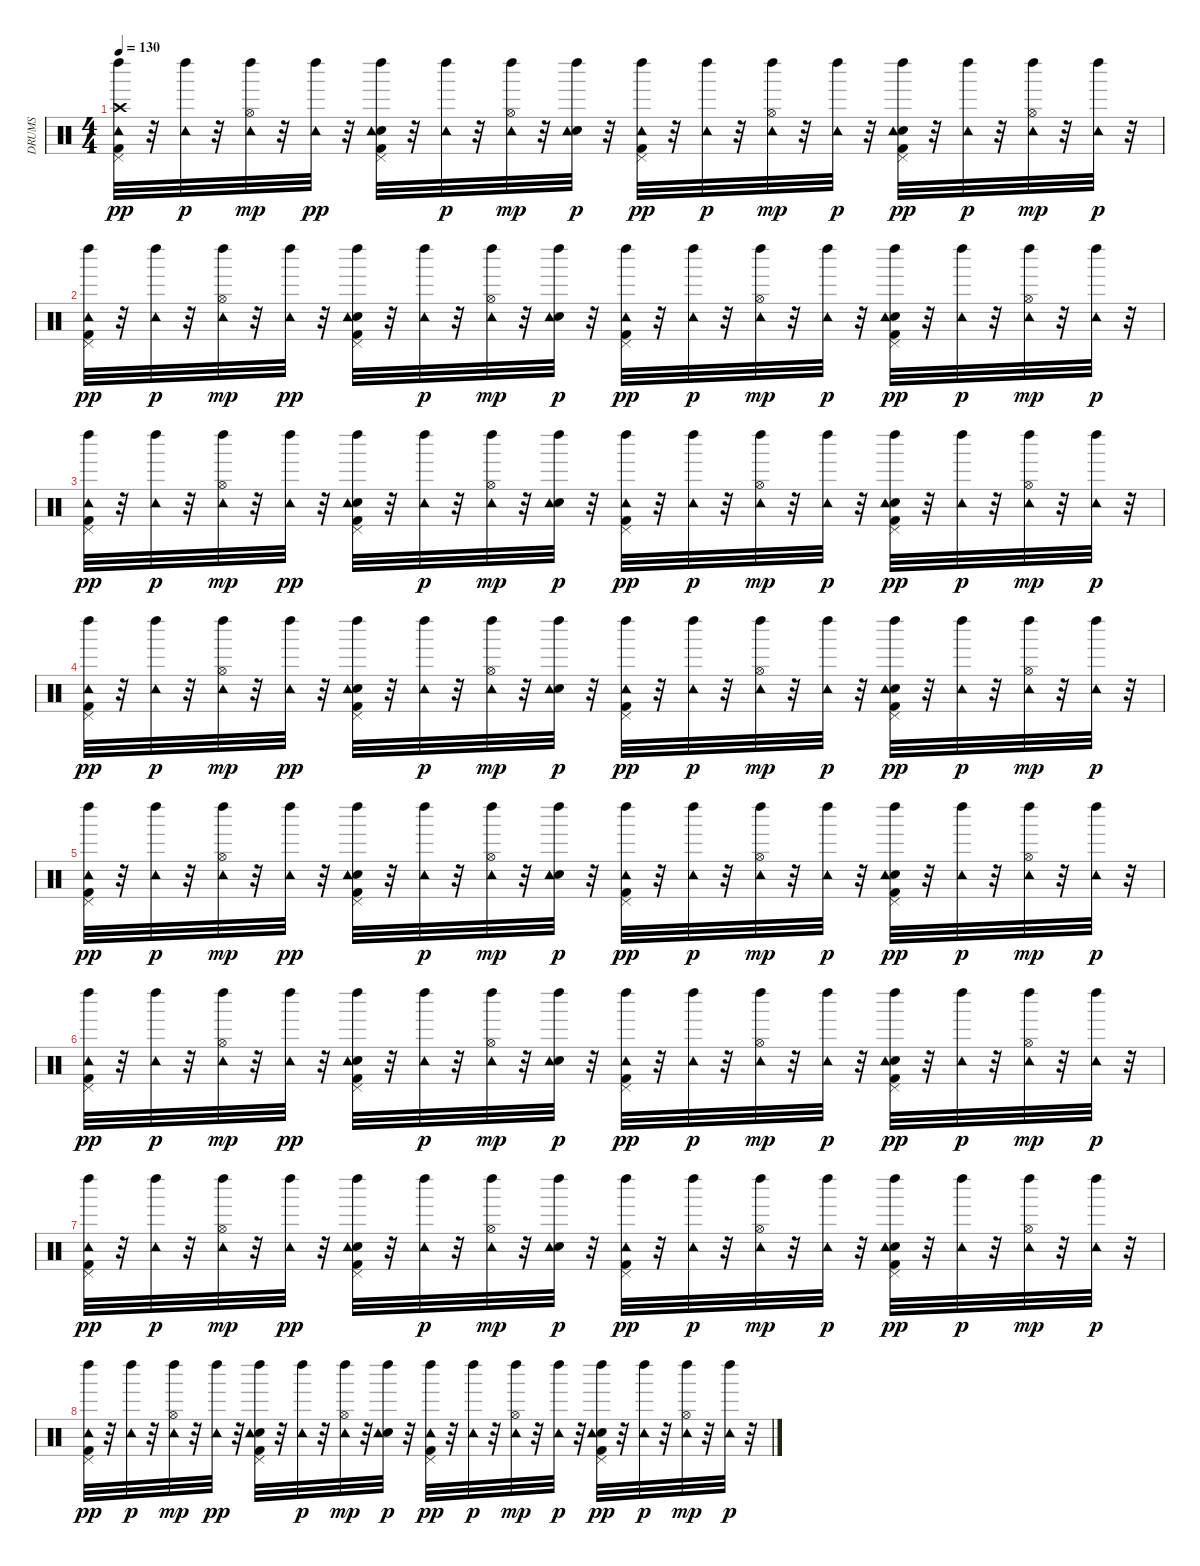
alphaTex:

\track ("DRUMS" "DRUMS") {instrument percussion}
\staff {score}
\articulation defaults
\ts (4 4)
\tempo 130
\clef neutral
\ks c
("Kick (hit) 2" "Pedal Hi-Hat (hit)" "Left Maraca (hit)" "Crash high (hit)" "Tambourine (hit)").32{dy pp} r.32 ("Left Maraca (hit)" "Tambourine (hit)").32{dy p} r.32 ("Hi-Hat (open)" "Left Maraca (hit)" "Tambourine (hit)").32{dy mp} r.32 ("Left Maraca (hit)" "Tambourine (hit)").32{dy pp} r.32 ("Kick (hit) 2" "Electric Snare (hit)" "Pedal Hi-Hat (hit)" "Left Maraca (hit)" "Tambourine (hit)").32 r.32 ("Left Maraca (hit)" "Tambourine (hit)").32{dy p} r.32 ("Hi-Hat (open)" "Left Maraca (hit)" "Tambourine (hit)").32{dy mp} r.32 ("Electric Snare (hit)" "Left Maraca (hit)" "Tambourine (hit)").32{dy p} r.32 ("Kick (hit) 2" "Pedal Hi-Hat (hit)" "Left Maraca (hit)" "Tambourine (hit)").32{dy pp} r.32 ("Left Maraca (hit)" "Tambourine (hit)").32{dy p} r.32 ("Hi-Hat (open)" "Left Maraca (hit)" "Tambourine (hit)").32{dy mp} r.32 ("Left Maraca (hit)" "Tambourine (hit)").32{dy p} r.32 ("Kick (hit) 2" "Electric Snare (hit)" "Pedal Hi-Hat (hit)" "Left Maraca (hit)" "Tambourine (hit)").32{dy pp} r.32 ("Left Maraca (hit)" "Tambourine (hit)").32{dy p} r.32 ("Hi-Hat (open)" "Left Maraca (hit)" "Tambourine (hit)").32{dy mp} r.32 ("Left Maraca (hit)" "Tambourine (hit)").32{dy p} r.32 |
("Kick (hit) 2" "Pedal Hi-Hat (hit)" "Left Maraca (hit)" "Tambourine (hit)").32{dy pp} r.32 ("Left Maraca (hit)" "Tambourine (hit)").32{dy p} r.32 ("Hi-Hat (open)" "Left Maraca (hit)" "Tambourine (hit)").32{dy mp} r.32 ("Left Maraca (hit)" "Tambourine (hit)").32{dy pp} r.32 ("Kick (hit) 2" "Electric Snare (hit)" "Pedal Hi-Hat (hit)" "Left Maraca (hit)" "Tambourine (hit)").32 r.32 ("Left Maraca (hit)" "Tambourine (hit)").32{dy p} r.32 ("Hi-Hat (open)" "Left Maraca (hit)" "Tambourine (hit)").32{dy mp} r.32 ("Electric Snare (hit)" "Left Maraca (hit)" "Tambourine (hit)").32{dy p} r.32 ("Kick (hit) 2" "Pedal Hi-Hat (hit)" "Left Maraca (hit)" "Tambourine (hit)").32{dy pp} r.32 ("Left Maraca (hit)" "Tambourine (hit)").32{dy p} r.32 ("Hi-Hat (open)" "Left Maraca (hit)" "Tambourine (hit)").32{dy mp} r.32 ("Left Maraca (hit)" "Tambourine (hit)").32{dy p} r.32 ("Kick (hit) 2" "Electric Snare (hit)" "Pedal Hi-Hat (hit)" "Left Maraca (hit)" "Tambourine (hit)").32{dy pp} r.32 ("Left Maraca (hit)" "Tambourine (hit)").32{dy p} r.32 ("Hi-Hat (open)" "Left Maraca (hit)" "Tambourine (hit)").32{dy mp} r.32 ("Left Maraca (hit)" "Tambourine (hit)").32{dy p} r.32 |
("Kick (hit) 2" "Pedal Hi-Hat (hit)" "Left Maraca (hit)" "Tambourine (hit)").32{dy pp} r.32 ("Left Maraca (hit)" "Tambourine (hit)").32{dy p} r.32 ("Hi-Hat (open)" "Left Maraca (hit)" "Tambourine (hit)").32{dy mp} r.32 ("Left Maraca (hit)" "Tambourine (hit)").32{dy pp} r.32 ("Kick (hit) 2" "Electric Snare (hit)" "Pedal Hi-Hat (hit)" "Left Maraca (hit)" "Tambourine (hit)").32 r.32 ("Left Maraca (hit)" "Tambourine (hit)").32{dy p} r.32 ("Hi-Hat (open)" "Left Maraca (hit)" "Tambourine (hit)").32{dy mp} r.32 ("Electric Snare (hit)" "Left Maraca (hit)" "Tambourine (hit)").32{dy p} r.32 ("Kick (hit) 2" "Pedal Hi-Hat (hit)" "Left Maraca (hit)" "Tambourine (hit)").32{dy pp} r.32 ("Left Maraca (hit)" "Tambourine (hit)").32{dy p} r.32 ("Hi-Hat (open)" "Left Maraca (hit)" "Tambourine (hit)").32{dy mp} r.32 ("Left Maraca (hit)" "Tambourine (hit)").32{dy p} r.32 ("Kick (hit) 2" "Electric Snare (hit)" "Pedal Hi-Hat (hit)" "Left Maraca (hit)" "Tambourine (hit)").32{dy pp} r.32 ("Left Maraca (hit)" "Tambourine (hit)").32{dy p} r.32 ("Hi-Hat (open)" "Left Maraca (hit)" "Tambourine (hit)").32{dy mp} r.32 ("Left Maraca (hit)" "Tambourine (hit)").32{dy p} r.32 |
("Kick (hit) 2" "Pedal Hi-Hat (hit)" "Left Maraca (hit)" "Tambourine (hit)").32{dy pp} r.32 ("Left Maraca (hit)" "Tambourine (hit)").32{dy p} r.32 ("Hi-Hat (open)" "Left Maraca (hit)" "Tambourine (hit)").32{dy mp} r.32 ("Left Maraca (hit)" "Tambourine (hit)").32{dy pp} r.32 ("Kick (hit) 2" "Electric Snare (hit)" "Pedal Hi-Hat (hit)" "Left Maraca (hit)" "Tambourine (hit)").32 r.32 ("Left Maraca (hit)" "Tambourine (hit)").32{dy p} r.32 ("Hi-Hat (open)" "Left Maraca (hit)" "Tambourine (hit)").32{dy mp} r.32 ("Electric Snare (hit)" "Left Maraca (hit)" "Tambourine (hit)").32{dy p} r.32 ("Kick (hit) 2" "Pedal Hi-Hat (hit)" "Left Maraca (hit)" "Tambourine (hit)").32{dy pp} r.32 ("Left Maraca (hit)" "Tambourine (hit)").32{dy p} r.32 ("Hi-Hat (open)" "Left Maraca (hit)" "Tambourine (hit)").32{dy mp} r.32 ("Left Maraca (hit)" "Tambourine (hit)").32{dy p} r.32 ("Kick (hit) 2" "Electric Snare (hit)" "Pedal Hi-Hat (hit)" "Left Maraca (hit)" "Tambourine (hit)").32{dy pp} r.32 ("Left Maraca (hit)" "Tambourine (hit)").32{dy p} r.32 ("Hi-Hat (open)" "Left Maraca (hit)" "Tambourine (hit)").32{dy mp} r.32 ("Left Maraca (hit)" "Tambourine (hit)").32{dy p} r.32 |
("Kick (hit) 2" "Pedal Hi-Hat (hit)" "Left Maraca (hit)" "Tambourine (hit)").32{dy pp} r.32 ("Left Maraca (hit)" "Tambourine (hit)").32{dy p} r.32 ("Hi-Hat (open)" "Left Maraca (hit)" "Tambourine (hit)").32{dy mp} r.32 ("Left Maraca (hit)" "Tambourine (hit)").32{dy pp} r.32 ("Kick (hit) 2" "Electric Snare (hit)" "Pedal Hi-Hat (hit)" "Left Maraca (hit)" "Tambourine (hit)").32 r.32 ("Left Maraca (hit)" "Tambourine (hit)").32{dy p} r.32 ("Hi-Hat (open)" "Left Maraca (hit)" "Tambourine (hit)").32{dy mp} r.32 ("Electric Snare (hit)" "Left Maraca (hit)" "Tambourine (hit)").32{dy p} r.32 ("Kick (hit) 2" "Pedal Hi-Hat (hit)" "Left Maraca (hit)" "Tambourine (hit)").32{dy pp} r.32 ("Left Maraca (hit)" "Tambourine (hit)").32{dy p} r.32 ("Hi-Hat (open)" "Left Maraca (hit)" "Tambourine (hit)").32{dy mp} r.32 ("Left Maraca (hit)" "Tambourine (hit)").32{dy p} r.32 ("Kick (hit) 2" "Electric Snare (hit)" "Pedal Hi-Hat (hit)" "Left Maraca (hit)" "Tambourine (hit)").32{dy pp} r.32 ("Left Maraca (hit)" "Tambourine (hit)").32{dy p} r.32 ("Hi-Hat (open)" "Left Maraca (hit)" "Tambourine (hit)").32{dy mp} r.32 ("Left Maraca (hit)" "Tambourine (hit)").32{dy p} r.32 |
("Kick (hit) 2" "Pedal Hi-Hat (hit)" "Left Maraca (hit)" "Tambourine (hit)").32{dy pp} r.32 ("Left Maraca (hit)" "Tambourine (hit)").32{dy p} r.32 ("Hi-Hat (open)" "Left Maraca (hit)" "Tambourine (hit)").32{dy mp} r.32 ("Left Maraca (hit)" "Tambourine (hit)").32{dy pp} r.32 ("Kick (hit) 2" "Electric Snare (hit)" "Pedal Hi-Hat (hit)" "Left Maraca (hit)" "Tambourine (hit)").32 r.32 ("Left Maraca (hit)" "Tambourine (hit)").32{dy p} r.32 ("Hi-Hat (open)" "Left Maraca (hit)" "Tambourine (hit)").32{dy mp} r.32 ("Electric Snare (hit)" "Left Maraca (hit)" "Tambourine (hit)").32{dy p} r.32 ("Kick (hit) 2" "Pedal Hi-Hat (hit)" "Left Maraca (hit)" "Tambourine (hit)").32{dy pp} r.32 ("Left Maraca (hit)" "Tambourine (hit)").32{dy p} r.32 ("Hi-Hat (open)" "Left Maraca (hit)" "Tambourine (hit)").32{dy mp} r.32 ("Left Maraca (hit)" "Tambourine (hit)").32{dy p} r.32 ("Kick (hit) 2" "Electric Snare (hit)" "Pedal Hi-Hat (hit)" "Left Maraca (hit)" "Tambourine (hit)").32{dy pp} r.32 ("Left Maraca (hit)" "Tambourine (hit)").32{dy p} r.32 ("Hi-Hat (open)" "Left Maraca (hit)" "Tambourine (hit)").32{dy mp} r.32 ("Left Maraca (hit)" "Tambourine (hit)").32{dy p} r.32 |
("Kick (hit) 2" "Pedal Hi-Hat (hit)" "Left Maraca (hit)" "Tambourine (hit)").32{dy pp} r.32 ("Left Maraca (hit)" "Tambourine (hit)").32{dy p} r.32 ("Hi-Hat (open)" "Left Maraca (hit)" "Tambourine (hit)").32{dy mp} r.32 ("Left Maraca (hit)" "Tambourine (hit)").32{dy pp} r.32 ("Kick (hit) 2" "Electric Snare (hit)" "Pedal Hi-Hat (hit)" "Left Maraca (hit)" "Tambourine (hit)").32 r.32 ("Left Maraca (hit)" "Tambourine (hit)").32{dy p} r.32 ("Hi-Hat (open)" "Left Maraca (hit)" "Tambourine (hit)").32{dy mp} r.32 ("Electric Snare (hit)" "Left Maraca (hit)" "Tambourine (hit)").32{dy p} r.32 ("Kick (hit) 2" "Pedal Hi-Hat (hit)" "Left Maraca (hit)" "Tambourine (hit)").32{dy pp} r.32 ("Left Maraca (hit)" "Tambourine (hit)").32{dy p} r.32 ("Hi-Hat (open)" "Left Maraca (hit)" "Tambourine (hit)").32{dy mp} r.32 ("Left Maraca (hit)" "Tambourine (hit)").32{dy p} r.32 ("Kick (hit) 2" "Electric Snare (hit)" "Pedal Hi-Hat (hit)" "Left Maraca (hit)" "Tambourine (hit)").32{dy pp} r.32 ("Left Maraca (hit)" "Tambourine (hit)").32{dy p} r.32 ("Hi-Hat (open)" "Left Maraca (hit)" "Tambourine (hit)").32{dy mp} r.32 ("Left Maraca (hit)" "Tambourine (hit)").32{dy p} r.32 |
("Kick (hit) 2" "Pedal Hi-Hat (hit)" "Left Maraca (hit)" "Tambourine (hit)").32{dy pp} r.32 ("Left Maraca (hit)" "Tambourine (hit)").32{dy p} r.32 ("Hi-Hat (open)" "Left Maraca (hit)" "Tambourine (hit)").32{dy mp} r.32 ("Left Maraca (hit)" "Tambourine (hit)").32{dy pp} r.32 ("Kick (hit) 2" "Electric Snare (hit)" "Pedal Hi-Hat (hit)" "Left Maraca (hit)" "Tambourine (hit)").32 r.32 ("Left Maraca (hit)" "Tambourine (hit)").32{dy p} r.32 ("Hi-Hat (open)" "Left Maraca (hit)" "Tambourine (hit)").32{dy mp} r.32 ("Electric Snare (hit)" "Left Maraca (hit)" "Tambourine (hit)").32{dy p} r.32 ("Kick (hit) 2" "Pedal Hi-Hat (hit)" "Left Maraca (hit)" "Tambourine (hit)").32{dy pp} r.32 ("Left Maraca (hit)" "Tambourine (hit)").32{dy p} r.32 ("Hi-Hat (open)" "Left Maraca (hit)" "Tambourine (hit)").32{dy mp} r.32 ("Left Maraca (hit)" "Tambourine (hit)").32{dy p} r.32 ("Kick (hit) 2" "Electric Snare (hit)" "Pedal Hi-Hat (hit)" "Left Maraca (hit)" "Tambourine (hit)").32{dy pp} r.32 ("Left Maraca (hit)" "Tambourine (hit)").32{dy p} r.32 ("Hi-Hat (open)" "Left Maraca (hit)" "Tambourine (hit)").32{dy mp} r.32 ("Left Maraca (hit)" "Tambourine (hit)").32{dy p} r.32
